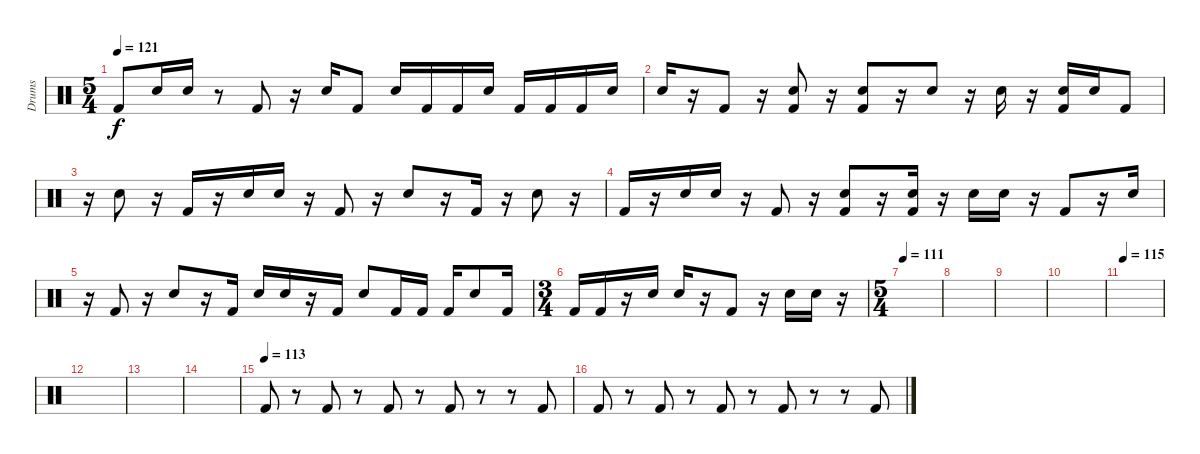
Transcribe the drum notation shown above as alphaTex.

\track ("Drums" "Drums") {instrument percussion}
\staff {score}
\articulation defaults
\ts (5 4)
\tempo 121
\clef neutral
\ks c "Kick (hit) 2".8{dy f} "Electric Snare (hit)".16 "Electric Snare (hit)".16
r.8 "Kick (hit) 2".8 r.16 "Electric Snare (hit)".16 "Kick (hit) 2".8 "Electric Snare (hit)".16 "Kick (hit) 2".16 "Kick (hit) 2".16 "Electric Snare (hit)".16 "Kick (hit) 2".16 "Kick (hit) 2".16 "Kick (hit) 2".16 "Electric Snare (hit)".16 |
"Electric Snare (hit)".16 r.16 "Kick (hit) 2".8 r.16 ("Electric Snare (hit)" "Kick (hit) 2").8 r.16 ("Electric Snare (hit)" "Kick (hit) 2").8 r.16 "Electric Snare (hit)".8 r.16 "Electric Snare (hit)".16 r.16 ("Electric Snare (hit)" "Kick (hit) 2").16 "Electric Snare (hit)".16 "Kick (hit) 2".8 |
r.16 "Electric Snare (hit)".8 r.16 "Kick (hit) 2".16 r.16 "Electric Snare (hit)".16 "Electric Snare (hit)".16 r.16 "Kick (hit) 2".8 r.16 "Electric Snare (hit)".8 r.16 "Kick (hit) 2".16 r.16 "Electric Snare (hit)".8 r.16 |
"Kick (hit) 2".16 r.16 "Electric Snare (hit)".16 "Electric Snare (hit)".16 r.16 "Kick (hit) 2".8 r.16 ("Electric Snare (hit)" "Kick (hit) 2").8 r.16 ("Electric Snare (hit)" "Kick (hit) 2").16 r.16 "Electric Snare (hit)".16 "Electric Snare (hit)".16 r.16 "Kick (hit) 2".8 r.16 "Electric Snare (hit)".16 |
r.16 "Kick (hit) 2".8 r.16 "Electric Snare (hit)".8 r.16 "Kick (hit) 2".16 "Electric Snare (hit)".16 "Electric Snare (hit)".16 r.16 "Kick (hit) 2".16 "Electric Snare (hit)".8 "Kick (hit) 2".16 "Kick (hit) 2".16 "Kick (hit) 2".16 "Electric Snare (hit)".8 "Kick (hit) 2".16 |
\ts (3 4)
"Kick (hit) 2".16 "Kick (hit) 2".16 r.16 "Electric Snare (hit)".16 "Electric Snare (hit)".16 r.16 "Kick (hit) 2".8 r.16 "Electric Snare (hit)".16 "Electric Snare (hit)".16 r.16 |
\ts (5 4)
\tempo 111
|
|
|
|
\tempo 115
|
|
|
|
\tempo (113)
"Kick (hit) 2".8 r.8 "Kick (hit) 2".8 r.8 "Kick (hit) 2".8 r.8 "Kick (hit) 2".8 r.8 r.8 "Kick (hit) 2".8 |
"Kick (hit) 2".8 r.8 "Kick (hit) 2".8 r.8 "Kick (hit) 2".8 r.8 "Kick (hit) 2".8 r.8 r.8 "Kick (hit) 2".8
